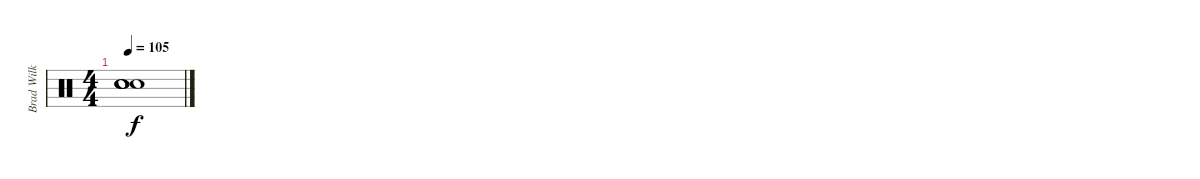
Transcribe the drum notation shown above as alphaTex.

\track ("Brad Wilk - Drums" "Brad Wilk ") {instrument percussion}
\staff {score}
\articulation defaults
\ts (4 4)
\tempo 105
\clef neutral
\ks c
("Snare (hit)"{t} "Snare (hit)"{t} "Snare (hit)"{t} "Snare (hit)"{t}).1{dy f}
